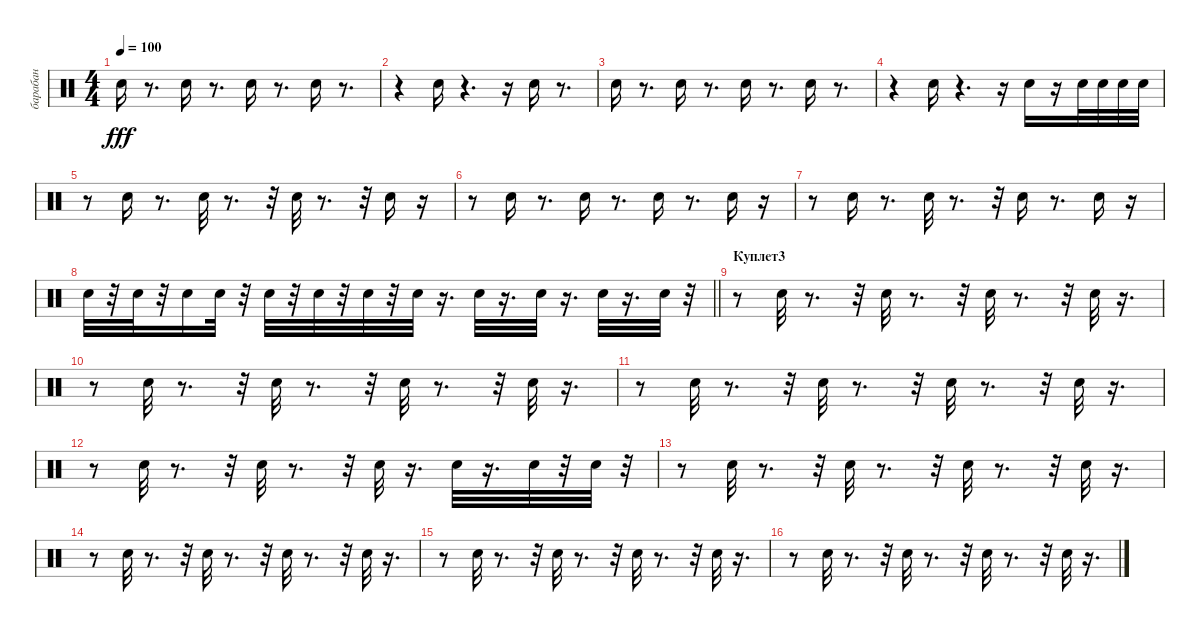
\track ("барабан" "барабан") {instrument percussion}
\staff {score}
\articulation defaults
\ts (4 4)
\tempo 100
\clef neutral
\ks c "Snare (hit) 2".16{dy fff}
r.8{d} "Snare (hit) 2".16 r.8{d} "Snare (hit) 2".16 r.8{d} "Snare (hit) 2".16 r.8{d} |
r.4 "Snare (hit) 2".16 r.4{d} r.16 "Snare (hit) 2".16 r.8{d} |
"Snare (hit) 2".16 r.8{d} "Snare (hit) 2".16 r.8{d} "Snare (hit) 2".16 r.8{d} "Snare (hit) 2".16 r.8{d} |
r.4 "Snare (hit) 2".16 r.4{d} r.16 "Snare (hit) 2".16 r.16 "Snare (hit) 2".32 "Snare (hit) 2".32 "Snare (hit) 2".32 "Snare (hit) 2".32 |
r.8 "Snare (hit) 2".16 r.8{d} "Snare (hit) 2".32 r.8{d} r.32 "Snare (hit) 2".32 r.8{d} r.32 "Snare (hit) 2".16 r.16 |
r.8 "Snare (hit) 2".16 r.8{d} "Snare (hit) 2".16 r.8{d} "Snare (hit) 2".16 r.8{d} "Snare (hit) 2".16 r.16 |
r.8 "Snare (hit) 2".16 r.8{d} "Snare (hit) 2".32 r.8{d} r.32 "Snare (hit) 2".16 r.8{d} "Snare (hit) 2".16 r.16 |
\barLineRight lightlight "Snare (hit) 2".32
r.32 "Snare (hit) 2".32 r.32 "Snare (hit) 2".16 "Snare (hit) 2".32 r.32 "Snare (hit) 2".32 r.32 "Snare (hit) 2".32 r.32 "Snare (hit) 2".32 r.32 "Snare (hit) 2".32 r.16{d} "Snare (hit) 2".32 r.16{d} "Snare (hit) 2".32 r.16{d} "Snare (hit) 2".32 r.16{d} "Snare (hit) 2".32 r.32 |
\section ("" "Куплет3")
r.8 "Snare (hit) 2".32 r.8{d} r.32 "Snare (hit) 2".32 r.8{d} r.32 "Snare (hit) 2".32 r.8{d} r.32 "Snare (hit) 2".32 r.16{d} |
r.8 "Snare (hit) 2".32 r.8{d} r.32 "Snare (hit) 2".32 r.8{d} r.32 "Snare (hit) 2".32 r.8{d} r.32 "Snare (hit) 2".32 r.16{d} |
r.8 "Snare (hit) 2".32 r.8{d} r.32 "Snare (hit) 2".32 r.8{d} r.32 "Snare (hit) 2".32 r.8{d} r.32 "Snare (hit) 2".32 r.16{d} |
r.8 "Snare (hit) 2".32 r.8{d} r.32 "Snare (hit) 2".32 r.8{d} r.32 "Snare (hit) 2".32 r.16{d} "Snare (hit) 2".32 r.16{d} "Snare (hit) 2".32 r.32 "Snare (hit) 2".32 r.32 |
r.8 "Snare (hit) 2".32 r.8{d} r.32 "Snare (hit) 2".32 r.8{d} r.32 "Snare (hit) 2".32 r.8{d} r.32 "Snare (hit) 2".32 r.16{d} |
r.8 "Snare (hit) 2".32 r.8{d} r.32 "Snare (hit) 2".32 r.8{d} r.32 "Snare (hit) 2".32 r.8{d} r.32 "Snare (hit) 2".32 r.16{d} |
r.8 "Snare (hit) 2".32 r.8{d} r.32 "Snare (hit) 2".32 r.8{d} r.32 "Snare (hit) 2".32 r.8{d} r.32 "Snare (hit) 2".32 r.16{d} |
r.8 "Snare (hit) 2".32 r.8{d} r.32 "Snare (hit) 2".32 r.8{d} r.32 "Snare (hit) 2".32 r.8{d} r.32 "Snare (hit) 2".32 r.16{d}
